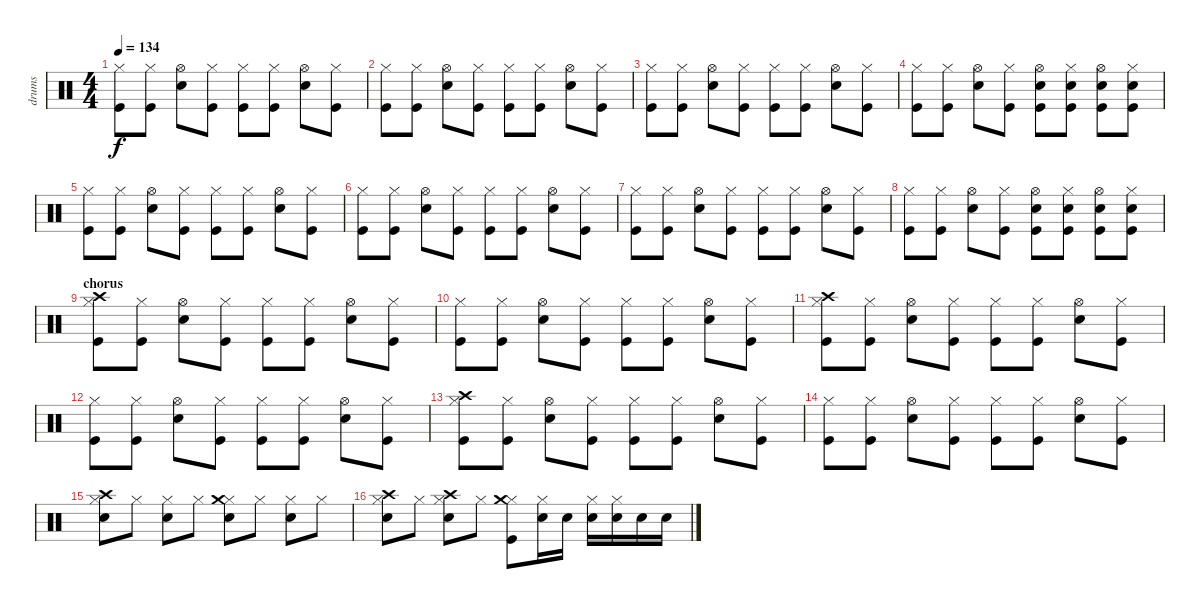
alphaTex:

\track ("drums" "drums") {instrument percussion}
\staff {score}
\articulation defaults
\ts (4 4)
\section ("" "")
\tempo 134
\clef neutral
\ks c
("Kick (hit)" "Hi-Hat (closed)").8{dy f} ("Kick (hit)" "Hi-Hat (closed)").8 ("Electric Snare (hit)" "Hi-Hat (open)").8 ("Kick (hit)" "Hi-Hat (closed)").8 ("Kick (hit)" "Hi-Hat (closed)").8 ("Kick (hit)" "Hi-Hat (closed)").8 ("Electric Snare (hit)" "Hi-Hat (open)").8 ("Kick (hit)" "Hi-Hat (closed)").8 |
("Kick (hit)" "Hi-Hat (closed)").8 ("Kick (hit)" "Hi-Hat (closed)").8 ("Electric Snare (hit)" "Hi-Hat (open)").8 ("Kick (hit)" "Hi-Hat (closed)").8 ("Kick (hit)" "Hi-Hat (closed)").8 ("Kick (hit)" "Hi-Hat (closed)").8 ("Electric Snare (hit)" "Hi-Hat (open)").8 ("Kick (hit)" "Hi-Hat (closed)").8 |
("Kick (hit)" "Hi-Hat (closed)").8 ("Kick (hit)" "Hi-Hat (closed)").8 ("Electric Snare (hit)" "Hi-Hat (open)").8 ("Kick (hit)" "Hi-Hat (closed)").8 ("Kick (hit)" "Hi-Hat (closed)").8 ("Kick (hit)" "Hi-Hat (closed)").8 ("Electric Snare (hit)" "Hi-Hat (open)").8 ("Kick (hit)" "Hi-Hat (closed)").8 |
("Kick (hit)" "Hi-Hat (closed)").8 ("Kick (hit)" "Hi-Hat (closed)").8 ("Electric Snare (hit)" "Hi-Hat (open)").8 ("Kick (hit)" "Hi-Hat (closed)").8 ("Electric Snare (hit)" "Hi-Hat (open)" "Kick (hit)").8 ("Electric Snare (hit)" "Hi-Hat (closed)" "Kick (hit)").8 ("Electric Snare (hit)" "Hi-Hat (open)" "Kick (hit)").8 ("Electric Snare (hit)" "Hi-Hat (closed)" "Kick (hit)").8 |
\section ("" "")
("Kick (hit)" "Hi-Hat (closed)").8 ("Kick (hit)" "Hi-Hat (closed)").8 ("Electric Snare (hit)" "Hi-Hat (open)").8 ("Kick (hit)" "Hi-Hat (closed)").8 ("Kick (hit)" "Hi-Hat (closed)").8 ("Kick (hit)" "Hi-Hat (closed)").8 ("Electric Snare (hit)" "Hi-Hat (open)").8 ("Kick (hit)" "Hi-Hat (closed)").8 |
("Kick (hit)" "Hi-Hat (closed)").8 ("Kick (hit)" "Hi-Hat (closed)").8 ("Electric Snare (hit)" "Hi-Hat (open)").8 ("Kick (hit)" "Hi-Hat (closed)").8 ("Kick (hit)" "Hi-Hat (closed)").8 ("Kick (hit)" "Hi-Hat (closed)").8 ("Electric Snare (hit)" "Hi-Hat (open)").8 ("Kick (hit)" "Hi-Hat (closed)").8 |
("Kick (hit)" "Hi-Hat (closed)").8 ("Kick (hit)" "Hi-Hat (closed)").8 ("Electric Snare (hit)" "Hi-Hat (open)").8 ("Kick (hit)" "Hi-Hat (closed)").8 ("Kick (hit)" "Hi-Hat (closed)").8 ("Kick (hit)" "Hi-Hat (closed)").8 ("Electric Snare (hit)" "Hi-Hat (open)").8 ("Kick (hit)" "Hi-Hat (closed)").8 |
("Kick (hit)" "Hi-Hat (closed)").8 ("Kick (hit)" "Hi-Hat (closed)").8 ("Electric Snare (hit)" "Hi-Hat (open)").8 ("Kick (hit)" "Hi-Hat (closed)").8 ("Electric Snare (hit)" "Hi-Hat (open)" "Kick (hit)").8 ("Electric Snare (hit)" "Hi-Hat (closed)" "Kick (hit)").8 ("Electric Snare (hit)" "Hi-Hat (open)" "Kick (hit)").8 ("Electric Snare (hit)" "Hi-Hat (closed)" "Kick (hit)").8 |
\section ("" "chorus")
("Kick (hit)" "Hi-Hat (closed)" "Crash high (hit)").8 ("Kick (hit)" "Hi-Hat (closed)").8 ("Electric Snare (hit)" "Hi-Hat (open)").8 ("Kick (hit)" "Hi-Hat (closed)").8 ("Kick (hit)" "Hi-Hat (closed)").8 ("Kick (hit)" "Hi-Hat (closed)").8 ("Electric Snare (hit)" "Hi-Hat (open)").8 ("Kick (hit)" "Hi-Hat (closed)").8 |
("Kick (hit)" "Hi-Hat (closed)").8 ("Kick (hit)" "Hi-Hat (closed)").8 ("Electric Snare (hit)" "Hi-Hat (open)").8 ("Kick (hit)" "Hi-Hat (closed)").8 ("Kick (hit)" "Hi-Hat (closed)").8 ("Kick (hit)" "Hi-Hat (closed)").8 ("Electric Snare (hit)" "Hi-Hat (open)").8 ("Kick (hit)" "Hi-Hat (closed)").8 |
("Kick (hit)" "Hi-Hat (closed)" "Crash high (hit)").8 ("Kick (hit)" "Hi-Hat (closed)").8 ("Electric Snare (hit)" "Hi-Hat (open)").8 ("Kick (hit)" "Hi-Hat (closed)").8 ("Kick (hit)" "Hi-Hat (closed)").8 ("Kick (hit)" "Hi-Hat (closed)").8 ("Electric Snare (hit)" "Hi-Hat (open)").8 ("Kick (hit)" "Hi-Hat (closed)").8 |
("Kick (hit)" "Hi-Hat (closed)").8 ("Kick (hit)" "Hi-Hat (closed)").8 ("Electric Snare (hit)" "Hi-Hat (open)").8 ("Kick (hit)" "Hi-Hat (closed)").8 ("Kick (hit)" "Hi-Hat (closed)").8 ("Kick (hit)" "Hi-Hat (closed)").8 ("Electric Snare (hit)" "Hi-Hat (open)").8 ("Kick (hit)" "Hi-Hat (closed)").8 |
("Kick (hit)" "Hi-Hat (closed)" "Crash high (hit)").8 ("Kick (hit)" "Hi-Hat (closed)").8 ("Electric Snare (hit)" "Hi-Hat (open)").8 ("Kick (hit)" "Hi-Hat (closed)").8 ("Kick (hit)" "Hi-Hat (closed)").8 ("Kick (hit)" "Hi-Hat (closed)").8 ("Electric Snare (hit)" "Hi-Hat (open)").8 ("Kick (hit)" "Hi-Hat (closed)").8 |
("Kick (hit)" "Hi-Hat (closed)").8 ("Kick (hit)" "Hi-Hat (closed)").8 ("Electric Snare (hit)" "Hi-Hat (open)").8 ("Kick (hit)" "Hi-Hat (closed)").8 ("Kick (hit)" "Hi-Hat (closed)").8 ("Kick (hit)" "Hi-Hat (closed)").8 ("Electric Snare (hit)" "Hi-Hat (open)").8 ("Kick (hit)" "Hi-Hat (closed)").8 |
("Electric Snare (hit)" "Hi-Hat (closed)" "Crash high (hit)").8 "Hi-Hat (closed)".8 ("Electric Snare (hit)" "Hi-Hat (closed)").8 "Hi-Hat (closed)".8 ("Electric Snare (hit)" "Hi-Hat (closed)" "Crash medium (hit)").8 "Hi-Hat (closed)".8 ("Electric Snare (hit)" "Hi-Hat (closed)").8 "Hi-Hat (closed)".8 |
("Electric Snare (hit)" "Hi-Hat (closed)" "Crash high (hit)").8 "Hi-Hat (closed)".8 ("Electric Snare (hit)" "Hi-Hat (closed)" "Crash high (hit)").8 "Hi-Hat (closed)".8 ("Kick (hit)" "Hi-Hat (closed)" "Crash medium (hit)").8 ("Electric Snare (hit)" "Hi-Hat (closed)").16 "Electric Snare (hit)".16 ("Electric Snare (hit)" "Hi-Hat (closed)").16 ("Electric Snare (hit)" "Hi-Hat (closed)").16 "Electric Snare (hit)".16 "Electric Snare (hit)".16
